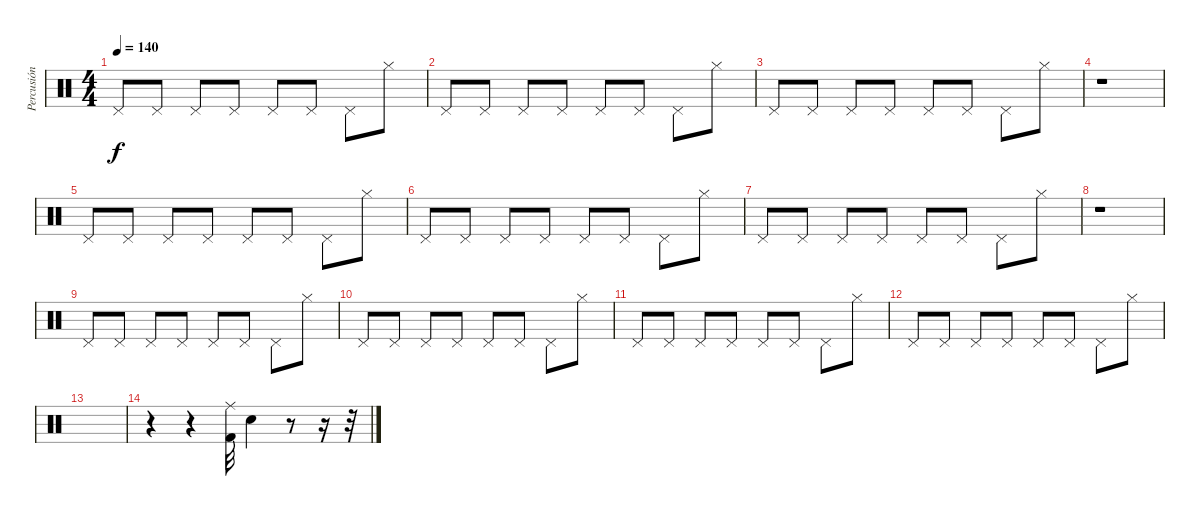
\track ("Percusión" "Percusión") {instrument percussion}
\staff {score}
\articulation defaults
\ts (4 4)
\tempo 140
\clef neutral
\ks c "Pedal Hi-Hat (hit)".8{dy f} "Pedal Hi-Hat (hit)".8 "Pedal Hi-Hat (hit)".8 "Pedal Hi-Hat (hit)".8 "Pedal Hi-Hat (hit)".8 "Pedal Hi-Hat (hit)".8 "Pedal Hi-Hat (hit)".8 "Hi-Hat (closed)".8
|
"Pedal Hi-Hat (hit)".8 "Pedal Hi-Hat (hit)".8 "Pedal Hi-Hat (hit)".8 "Pedal Hi-Hat (hit)".8 "Pedal Hi-Hat (hit)".8 "Pedal Hi-Hat (hit)".8 "Pedal Hi-Hat (hit)".8 "Hi-Hat (closed)".8 |
"Pedal Hi-Hat (hit)".8 "Pedal Hi-Hat (hit)".8 "Pedal Hi-Hat (hit)".8 "Pedal Hi-Hat (hit)".8 "Pedal Hi-Hat (hit)".8 "Pedal Hi-Hat (hit)".8 "Pedal Hi-Hat (hit)".8 "Hi-Hat (closed)".8 |
r.1 |
"Pedal Hi-Hat (hit)".8 "Pedal Hi-Hat (hit)".8 "Pedal Hi-Hat (hit)".8 "Pedal Hi-Hat (hit)".8 "Pedal Hi-Hat (hit)".8 "Pedal Hi-Hat (hit)".8 "Pedal Hi-Hat (hit)".8 "Hi-Hat (closed)".8 |
"Pedal Hi-Hat (hit)".8 "Pedal Hi-Hat (hit)".8 "Pedal Hi-Hat (hit)".8 "Pedal Hi-Hat (hit)".8 "Pedal Hi-Hat (hit)".8 "Pedal Hi-Hat (hit)".8 "Pedal Hi-Hat (hit)".8 "Hi-Hat (closed)".8 |
"Pedal Hi-Hat (hit)".8 "Pedal Hi-Hat (hit)".8 "Pedal Hi-Hat (hit)".8 "Pedal Hi-Hat (hit)".8 "Pedal Hi-Hat (hit)".8 "Pedal Hi-Hat (hit)".8 "Pedal Hi-Hat (hit)".8 "Hi-Hat (closed)".8 |
r.1 |
"Pedal Hi-Hat (hit)".8 "Pedal Hi-Hat (hit)".8 "Pedal Hi-Hat (hit)".8 "Pedal Hi-Hat (hit)".8 "Pedal Hi-Hat (hit)".8 "Pedal Hi-Hat (hit)".8 "Pedal Hi-Hat (hit)".8 "Hi-Hat (closed)".8 |
"Pedal Hi-Hat (hit)".8 "Pedal Hi-Hat (hit)".8 "Pedal Hi-Hat (hit)".8 "Pedal Hi-Hat (hit)".8 "Pedal Hi-Hat (hit)".8 "Pedal Hi-Hat (hit)".8 "Pedal Hi-Hat (hit)".8 "Hi-Hat (closed)".8 |
"Pedal Hi-Hat (hit)".8 "Pedal Hi-Hat (hit)".8 "Pedal Hi-Hat (hit)".8 "Pedal Hi-Hat (hit)".8 "Pedal Hi-Hat (hit)".8 "Pedal Hi-Hat (hit)".8 "Pedal Hi-Hat (hit)".8 "Hi-Hat (closed)".8 |
"Pedal Hi-Hat (hit)".8 "Pedal Hi-Hat (hit)".8 "Pedal Hi-Hat (hit)".8 "Pedal Hi-Hat (hit)".8 "Pedal Hi-Hat (hit)".8 "Pedal Hi-Hat (hit)".8 "Pedal Hi-Hat (hit)".8 "Hi-Hat (closed)".8 |
|
r.4 r.4 ("Ride (middle)" "Kick (hit) 2").32 "Snare (hit) 2".4 r.8 r.16 r.32
